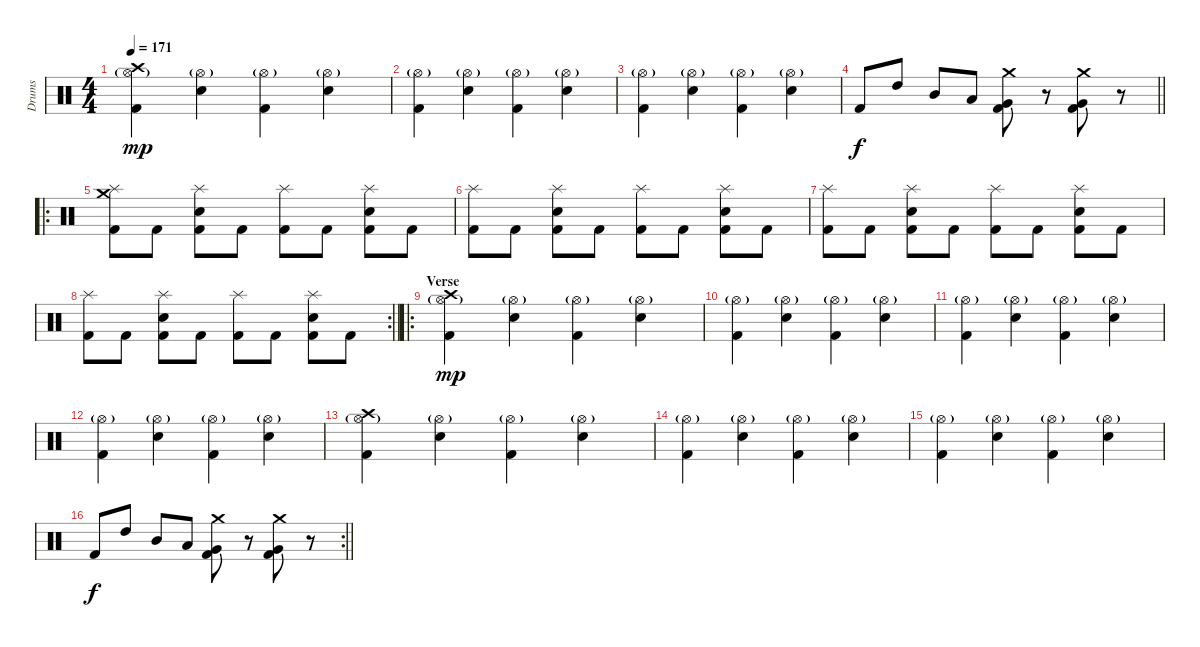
\track ("Drums" "Drums") {instrument percussion}
\staff {score}
\articulation defaults
\ts (4 4)
\tempo 171
\clef neutral
\ks c
("Kick (hit) 2" "Hi-Hat (open)"{g} "Crash high (hit)").4{dy mp} ("Snare (hit) 2" "Hi-Hat (open)"{g}).4 ("Kick (hit) 2" "Hi-Hat (open)"{g}).4 ("Snare (hit) 2" "Hi-Hat (open)"{g}).4 |
("Kick (hit) 2" "Hi-Hat (open)"{g}).4 ("Snare (hit) 2" "Hi-Hat (open)"{g}).4 ("Kick (hit) 2" "Hi-Hat (open)"{g}).4 ("Snare (hit) 2" "Hi-Hat (open)"{g}).4 |
("Kick (hit) 2" "Hi-Hat (open)"{g}).4 ("Snare (hit) 2" "Hi-Hat (open)"{g}).4 ("Kick (hit) 2" "Hi-Hat (open)"{g}).4 ("Snare (hit) 2" "Hi-Hat (open)"{g}).4 |
\barLineRight lightlight "Kick (hit) 2".8{dy f} "High Tom (hit)".8 "Mid Tom (hit)".8 "Low Tom (hit)".8
("Kick (hit) 2" "Very Low Tom (hit)" "Crash medium (hit)").8 r.8 ("Kick (hit) 2" "Very Low Tom (hit)" "Crash medium (hit)").8 r.8 |
\ro
\section ("" "")
("Kick (hit) 2" "Splash (hit)" "Crash medium (hit)").8 "Kick (hit) 2".8 ("Kick (hit) 2" "Snare (hit) 2" "Splash (hit)").8 "Kick (hit) 2".8 ("Kick (hit) 2" "Splash (hit)").8 "Kick (hit) 2".8 ("Kick (hit) 2" "Snare (hit) 2" "Splash (hit)").8 "Kick (hit) 2".8 |
("Kick (hit) 2" "Splash (hit)").8 "Kick (hit) 2".8 ("Kick (hit) 2" "Snare (hit) 2" "Splash (hit)").8 "Kick (hit) 2".8 ("Kick (hit) 2" "Splash (hit)").8 "Kick (hit) 2".8 ("Kick (hit) 2" "Snare (hit) 2" "Splash (hit)").8 "Kick (hit) 2".8 |
("Kick (hit) 2" "Splash (hit)").8 "Kick (hit) 2".8 ("Kick (hit) 2" "Snare (hit) 2" "Splash (hit)").8 "Kick (hit) 2".8 ("Kick (hit) 2" "Splash (hit)").8 "Kick (hit) 2".8 ("Kick (hit) 2" "Snare (hit) 2" "Splash (hit)").8 "Kick (hit) 2".8 |
\rc 2
\barLineRight lightlight
("Kick (hit) 2" "Splash (hit)").8 "Kick (hit) 2".8 ("Kick (hit) 2" "Snare (hit) 2" "Splash (hit)").8 "Kick (hit) 2".8 ("Kick (hit) 2" "Splash (hit)").8 "Kick (hit) 2".8 ("Kick (hit) 2" "Snare (hit) 2" "Splash (hit)").8 "Kick (hit) 2".8 |
\ro
\section ("" "Verse")
("Kick (hit) 2" "Hi-Hat (open)"{g} "Crash high (hit)").4{dy mp} ("Snare (hit) 2" "Hi-Hat (open)"{g}).4 ("Kick (hit) 2" "Hi-Hat (open)"{g}).4 ("Snare (hit) 2" "Hi-Hat (open)"{g}).4 |
("Kick (hit) 2" "Hi-Hat (open)"{g}).4 ("Snare (hit) 2" "Hi-Hat (open)"{g}).4 ("Kick (hit) 2" "Hi-Hat (open)"{g}).4 ("Snare (hit) 2" "Hi-Hat (open)"{g}).4 |
("Kick (hit) 2" "Hi-Hat (open)"{g}).4 ("Snare (hit) 2" "Hi-Hat (open)"{g}).4 ("Kick (hit) 2" "Hi-Hat (open)"{g}).4 ("Snare (hit) 2" "Hi-Hat (open)"{g}).4 |
("Kick (hit) 2" "Hi-Hat (open)"{g}).4 ("Snare (hit) 2" "Hi-Hat (open)"{g}).4 ("Kick (hit) 2" "Hi-Hat (open)"{g}).4 ("Snare (hit) 2" "Hi-Hat (open)"{g}).4 |
("Kick (hit) 2" "Hi-Hat (open)"{g} "Crash high (hit)").4 ("Snare (hit) 2" "Hi-Hat (open)"{g}).4 ("Kick (hit) 2" "Hi-Hat (open)"{g}).4 ("Snare (hit) 2" "Hi-Hat (open)"{g}).4 |
("Kick (hit) 2" "Hi-Hat (open)"{g}).4 ("Snare (hit) 2" "Hi-Hat (open)"{g}).4 ("Kick (hit) 2" "Hi-Hat (open)"{g}).4 ("Snare (hit) 2" "Hi-Hat (open)"{g}).4 |
("Kick (hit) 2" "Hi-Hat (open)"{g}).4 ("Snare (hit) 2" "Hi-Hat (open)"{g}).4 ("Kick (hit) 2" "Hi-Hat (open)"{g}).4 ("Snare (hit) 2" "Hi-Hat (open)"{g}).4 |
\rc 2
\barLineRight lightlight "Kick (hit) 2".8{dy f} "High Tom (hit)".8 "Mid Tom (hit)".8 "Low Tom (hit)".8
("Kick (hit) 2" "Very Low Tom (hit)" "Crash medium (hit)").8 r.8 ("Kick (hit) 2" "Very Low Tom (hit)" "Crash medium (hit)").8 r.8
